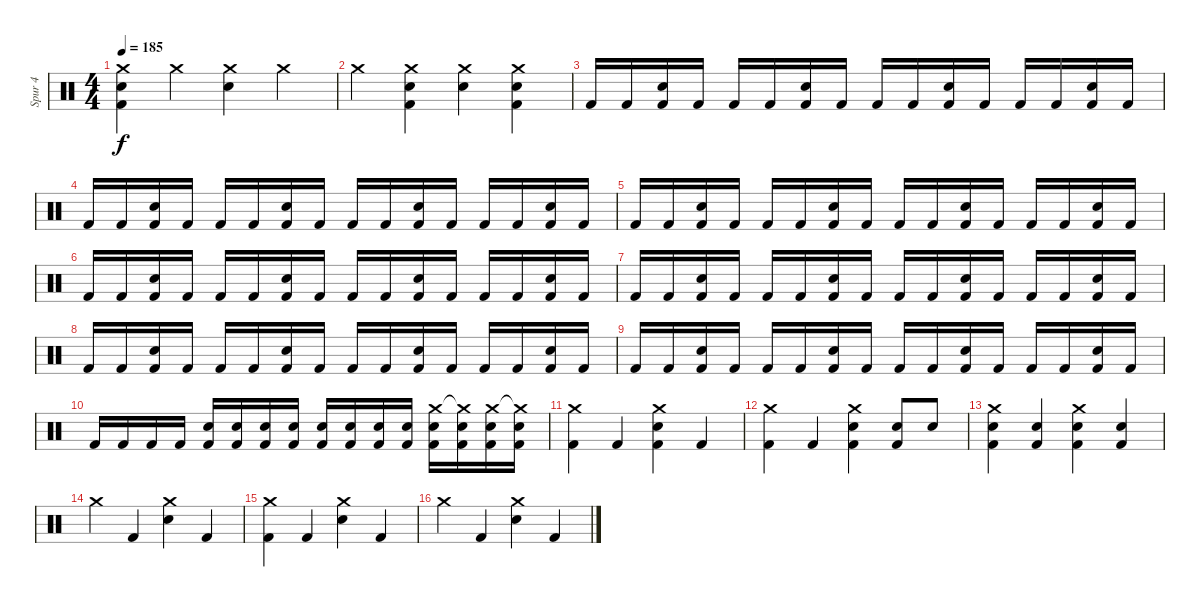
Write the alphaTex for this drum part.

\track ("Spur 4" "Spur 4") {instrument percussion}
\staff {score}
\articulation defaults
\ts (4 4)
\tempo 185
\clef neutral
\ks c
("Crash medium (hit)" "Snare (hit) 2" "Kick (hit) 2").4{dy f} "Crash medium (hit)".4 ("Crash medium (hit)" "Electric Snare (hit)").4 "Crash medium (hit)".4 |
"Crash medium (hit)".4 ("Crash medium (hit)" "Snare (hit) 2" "Kick (hit) 2").4 ("Crash medium (hit)" "Electric Snare (hit)").4 ("Crash medium (hit)" "Snare (hit) 2" "Kick (hit) 2").4 |
"Kick (hit) 2".16 "Kick (hit) 2".16 ("Electric Snare (hit)" "Kick (hit) 2").16 "Kick (hit) 2".16 "Kick (hit) 2".16 "Kick (hit) 2".16 ("Electric Snare (hit)" "Kick (hit) 2").16 "Kick (hit) 2".16 "Kick (hit) 2".16 "Kick (hit) 2".16 ("Electric Snare (hit)" "Kick (hit) 2").16 "Kick (hit) 2".16 "Kick (hit) 2".16 "Kick (hit) 2".16 ("Electric Snare (hit)" "Kick (hit) 2").16 "Kick (hit) 2".16 |
"Kick (hit) 2".16 "Kick (hit) 2".16 ("Electric Snare (hit)" "Kick (hit) 2").16 "Kick (hit) 2".16 "Kick (hit) 2".16 "Kick (hit) 2".16 ("Electric Snare (hit)" "Kick (hit) 2").16 "Kick (hit) 2".16 "Kick (hit) 2".16 "Kick (hit) 2".16 ("Electric Snare (hit)" "Kick (hit) 2").16 "Kick (hit) 2".16 "Kick (hit) 2".16 "Kick (hit) 2".16 ("Electric Snare (hit)" "Kick (hit) 2").16 "Kick (hit) 2".16 |
"Kick (hit) 2".16 "Kick (hit) 2".16 ("Electric Snare (hit)" "Kick (hit) 2").16 "Kick (hit) 2".16 "Kick (hit) 2".16 "Kick (hit) 2".16 ("Electric Snare (hit)" "Kick (hit) 2").16 "Kick (hit) 2".16 "Kick (hit) 2".16 "Kick (hit) 2".16 ("Electric Snare (hit)" "Kick (hit) 2").16 "Kick (hit) 2".16 "Kick (hit) 2".16 "Kick (hit) 2".16 ("Electric Snare (hit)" "Kick (hit) 2").16 "Kick (hit) 2".16 |
"Kick (hit) 2".16 "Kick (hit) 2".16 ("Electric Snare (hit)" "Kick (hit) 2").16 "Kick (hit) 2".16 "Kick (hit) 2".16 "Kick (hit) 2".16 ("Electric Snare (hit)" "Kick (hit) 2").16 "Kick (hit) 2".16 "Kick (hit) 2".16 "Kick (hit) 2".16 ("Electric Snare (hit)" "Kick (hit) 2").16 "Kick (hit) 2".16 "Kick (hit) 2".16 "Kick (hit) 2".16 ("Electric Snare (hit)" "Kick (hit) 2").16 "Kick (hit) 2".16 |
"Kick (hit) 2".16 "Kick (hit) 2".16 ("Electric Snare (hit)" "Kick (hit) 2").16 "Kick (hit) 2".16 "Kick (hit) 2".16 "Kick (hit) 2".16 ("Electric Snare (hit)" "Kick (hit) 2").16 "Kick (hit) 2".16 "Kick (hit) 2".16 "Kick (hit) 2".16 ("Electric Snare (hit)" "Kick (hit) 2").16 "Kick (hit) 2".16 "Kick (hit) 2".16 "Kick (hit) 2".16 ("Electric Snare (hit)" "Kick (hit) 2").16 "Kick (hit) 2".16 |
"Kick (hit) 2".16 "Kick (hit) 2".16 ("Electric Snare (hit)" "Kick (hit) 2").16 "Kick (hit) 2".16 "Kick (hit) 2".16 "Kick (hit) 2".16 ("Electric Snare (hit)" "Kick (hit) 2").16 "Kick (hit) 2".16 "Kick (hit) 2".16 "Kick (hit) 2".16 ("Electric Snare (hit)" "Kick (hit) 2").16 "Kick (hit) 2".16 "Kick (hit) 2".16 "Kick (hit) 2".16 ("Electric Snare (hit)" "Kick (hit) 2").16 "Kick (hit) 2".16 |
"Kick (hit) 2".16 "Kick (hit) 2".16 ("Electric Snare (hit)" "Kick (hit) 2").16 "Kick (hit) 2".16 "Kick (hit) 2".16 "Kick (hit) 2".16 ("Electric Snare (hit)" "Kick (hit) 2").16 "Kick (hit) 2".16 "Kick (hit) 2".16 "Kick (hit) 2".16 ("Electric Snare (hit)" "Kick (hit) 2").16 "Kick (hit) 2".16 "Kick (hit) 2".16 "Kick (hit) 2".16 ("Electric Snare (hit)" "Kick (hit) 2").16 "Kick (hit) 2".16 |
"Kick (hit) 2".16 "Kick (hit) 2".16 "Kick (hit) 2".16 "Kick (hit) 2".16 ("Electric Snare (hit)" "Kick (hit) 2").16 ("Electric Snare (hit)" "Kick (hit) 2").16 ("Electric Snare (hit)" "Kick (hit) 2").16 ("Electric Snare (hit)" "Kick (hit) 2").16 ("Electric Snare (hit)" "Kick (hit) 2").16 ("Electric Snare (hit)" "Kick (hit) 2").16 ("Electric Snare (hit)" "Kick (hit) 2").16 ("Electric Snare (hit)" "Kick (hit) 2").16 ("Crash medium (hit)" "Electric Snare (hit)" "Kick (hit) 2").16 ("Crash medium (hit)"{t} "Electric Snare (hit)" "Kick (hit) 2").16 ("Crash medium (hit)" "Electric Snare (hit)" "Kick (hit) 2").16 ("Crash medium (hit)"{t} "Electric Snare (hit)" "Kick (hit) 2").16 |
("Crash medium (hit)" "Kick (hit) 2").4 "Kick (hit) 2".4 ("Crash medium (hit)" "Electric Snare (hit)" "Kick (hit) 2").4 "Kick (hit) 2".4 |
("Crash medium (hit)" "Kick (hit) 2").4 "Kick (hit) 2".4 ("Crash medium (hit)" "Electric Snare (hit)" "Kick (hit) 2").4 ("Electric Snare (hit)" "Kick (hit) 2").8 "Electric Snare (hit)".8 |
("Crash medium (hit)" "Electric Snare (hit)" "Kick (hit) 2").4 ("Electric Snare (hit)" "Kick (hit) 2").4 ("Crash medium (hit)" "Electric Snare (hit)" "Kick (hit) 2").4 ("Electric Snare (hit)" "Kick (hit) 2").4 |
"Crash medium (hit)".4 "Kick (hit) 2".4 ("Crash medium (hit)" "Electric Snare (hit)").4 "Kick (hit) 2".4 |
("Crash medium (hit)" "Kick (hit) 2").4 "Kick (hit) 2".4 ("Crash medium (hit)" "Electric Snare (hit)").4 "Kick (hit) 2".4 |
"Crash medium (hit)".4 "Kick (hit) 2".4 ("Crash medium (hit)" "Electric Snare (hit)").4 "Kick (hit) 2".4
